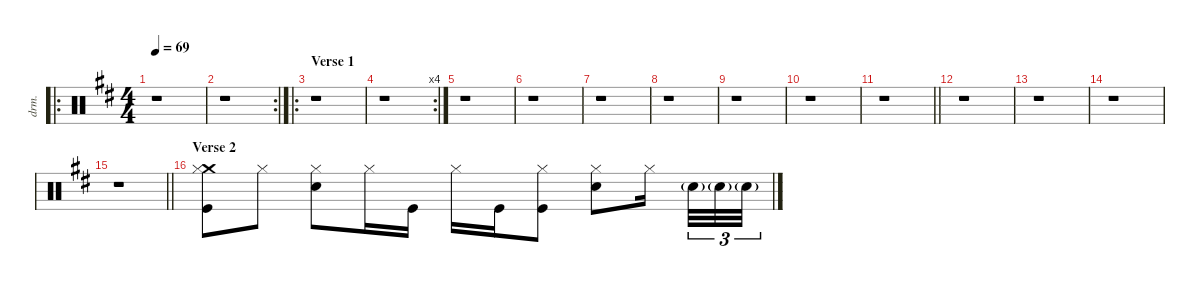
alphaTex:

\defaultSystemsLayout 4
\hideDynamics
\bracketExtendMode nobrackets
\otherSystemsTrackNameOrientation horizontal
\track ("Percussion" "drm.") {defaultSystemsLayout 4 instrument percussion}
\staff {score}
\articulation defaults
\ro
\ts (4 4)
\beaming (8 2 2 2 2)
\tempo 69
\clef neutral
\ks bminor
r.1{dy f beam Down} |
\rc 2
r.1{beam Down} |
\ro
\section ("" "Verse 1")
r.1{beam Down} |
\rc 4
r.1{beam Down} |
r.1{beam Down} |
r.1{beam Down} |
r.1{beam Down} |
r.1{beam Down} |
r.1{beam Down} |
r.1{beam Down} |
\barLineRight lightlight
r.1{beam Down} |
r.1{beam Down} |
r.1{beam Down} |
r.1{beam Down} |
\barLineRight lightlight
r.1{beam Down} |
\section ("" "Verse 2")
("Crash medium (hit)"{acc forcenatural} "Kick (hit)"{acc forcenatural} "Hi-Hat (closed)"{acc forcenatural}).8{beam Down} "Hi-Hat (closed)"{acc forcenatural}.8{beam Down} ("Snare (hit) 2"{acc forcenatural} "Hi-Hat (closed)"{acc forcenatural}).8{beam Down} "Hi-Hat (closed)"{acc forcenatural}.16{beam Down} "Kick (hit)"{acc forcenatural}.16{beam Down} "Hi-Hat (closed)"{acc forcenatural}.16{beam Down} "Kick (hit)"{acc forcenatural}.16{beam Down} ("Kick (hit)"{acc forcenatural} "Hi-Hat (closed)"{acc forcenatural}).8{beam Down} ("Snare (hit) 2"{acc forcenatural} "Hi-Hat (closed)"{acc forcenatural}).8{beam Down} "Hi-Hat (closed)"{acc forcenatural}.16{beam Down} "Snare (hit) 2"{g acc forcenatural}.32{tu (3 2) dy mf beam Down} "Snare (hit) 2"{g acc forcenatural}.32{tu (3 2) dy mp beam Down} "Snare (hit) 2"{g acc forcenatural}.32{tu (3 2) dy mf beam Down}
